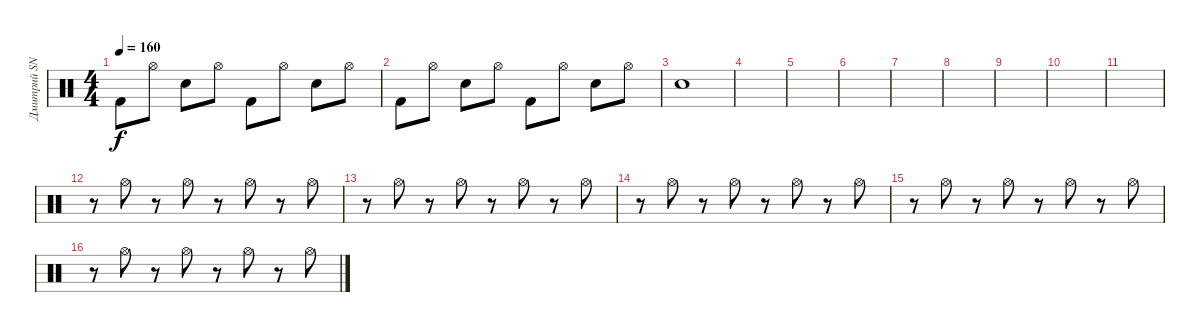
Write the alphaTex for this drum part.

\track ("Дмитрий SNAKE Хакимов" "Дмитрий SN") {instrument percussion}
\staff {score}
\articulation defaults
\ts (4 4)
\tempo 160
\clef neutral
\ks c "Kick (hit) 2".8{dy f} "Hi-Hat (open)".8 "Electric Snare (hit)".8 "Hi-Hat (open)".8 "Kick (hit) 2".8 "Hi-Hat (open)".8 "Electric Snare (hit)".8 "Hi-Hat (open)".8
|
"Kick (hit) 2".8 "Hi-Hat (open)".8 "Electric Snare (hit)".8 "Hi-Hat (open)".8 "Kick (hit) 2".8 "Hi-Hat (open)".8 "Electric Snare (hit)".8 "Hi-Hat (open)".8 |
"Electric Snare (hit)".1 |
|
|
|
|
|
|
|
|
r.8 "Hi-Hat (open)".8 r.8 "Hi-Hat (open)".8 r.8 "Hi-Hat (open)".8 r.8 "Hi-Hat (open)".8 |
r.8 "Hi-Hat (open)".8 r.8 "Hi-Hat (open)".8 r.8 "Hi-Hat (open)".8 r.8 "Hi-Hat (open)".8 |
r.8 "Hi-Hat (open)".8 r.8 "Hi-Hat (open)".8 r.8 "Hi-Hat (open)".8 r.8 "Hi-Hat (open)".8 |
r.8 "Hi-Hat (open)".8 r.8 "Hi-Hat (open)".8 r.8 "Hi-Hat (open)".8 r.8 "Hi-Hat (open)".8 |
r.8 "Hi-Hat (open)".8 r.8 "Hi-Hat (open)".8 r.8 "Hi-Hat (open)".8 r.8 "Hi-Hat (open)".8
